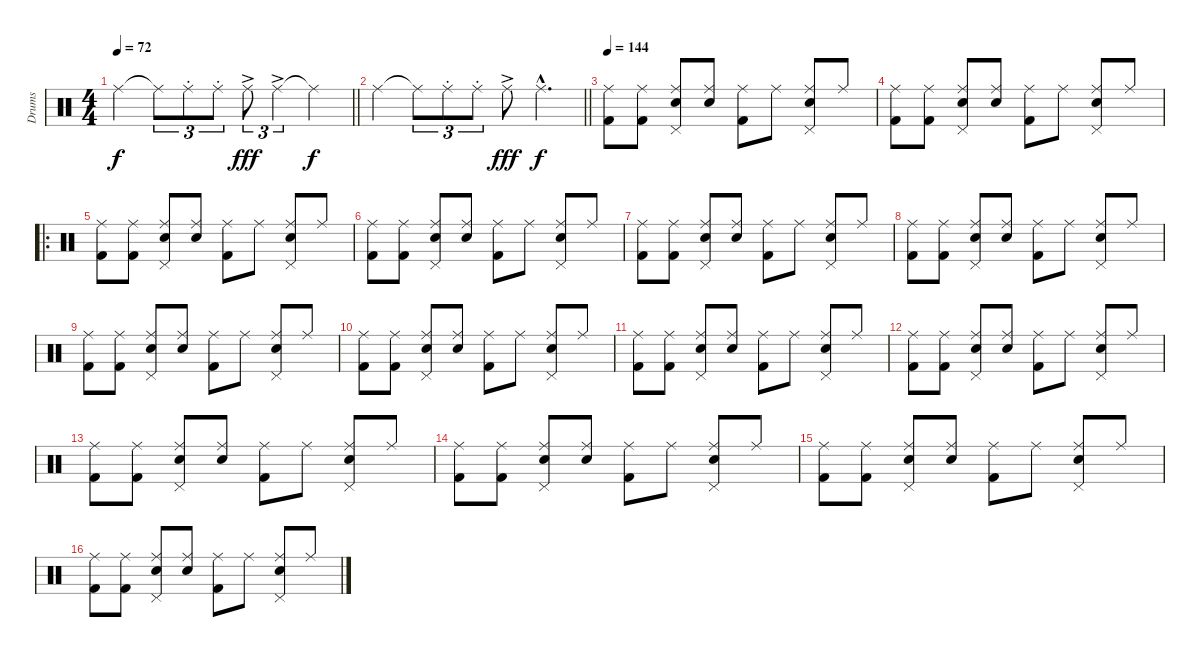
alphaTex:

\track ("Drums" "Drums") {instrument percussion}
\staff {score}
\articulation defaults
\ts (4 4)
\tempo 72
\clef neutral
\barLineRight lightlight
\ks c "Ride (middle)"{tr (51 64)}.4{dy f} "Ride (middle)"{t}.8{tu (3 2)} "Ride (middle)"{st}.8{tu (3 2)} "Ride (middle)"{st}.8{tu (3 2)} "Ride (middle)"{ac}.8{tu (3 2) dy fff} "Ride (middle)"{tr (51 64) ac}.4{tu (3 2)} "Ride (middle)"{t}.4{dy f}
|
\barLineRight lightlight "Ride (middle)"{tr (51 64)}.4 "Ride (middle)"{t}.8{tu (3 2)} "Ride (middle)"{st}.8{tu (3 2)} "Ride (middle)"{st}.8{tu (3 2)} "Ride (middle)"{ac}.8{dy fff} "Ride (middle)"{tr (51 64) hac}.4{d dy f}
|
\tempo 144
("Ride (middle)" "Kick (hit) 2").8 ("Ride (middle)" "Kick (hit) 2").8 ("Snare (hit) 2" "Pedal Hi-Hat (hit)" "Ride (middle)").8 ("Snare (hit) 2" "Ride (middle)").8 ("Ride (middle)" "Kick (hit) 2").8 "Ride (middle)".8 ("Snare (hit) 2" "Pedal Hi-Hat (hit)" "Ride (middle)").8 "Ride (middle)".8 |
("Ride (middle)" "Kick (hit) 2").8 ("Ride (middle)" "Kick (hit) 2").8 ("Snare (hit) 2" "Pedal Hi-Hat (hit)" "Ride (middle)").8 ("Snare (hit) 2" "Ride (middle)").8 ("Ride (middle)" "Kick (hit) 2").8 "Ride (middle)".8 ("Snare (hit) 2" "Pedal Hi-Hat (hit)" "Ride (middle)").8 "Ride (middle)".8 |
\ro
("Ride (middle)" "Kick (hit) 2").8 ("Ride (middle)" "Kick (hit) 2").8 ("Snare (hit) 2" "Pedal Hi-Hat (hit)" "Ride (middle)").8 ("Snare (hit) 2" "Ride (middle)").8 ("Ride (middle)" "Kick (hit) 2").8 "Ride (middle)".8 ("Snare (hit) 2" "Pedal Hi-Hat (hit)" "Ride (middle)").8 "Ride (middle)".8 |
("Ride (middle)" "Kick (hit) 2").8 ("Ride (middle)" "Kick (hit) 2").8 ("Snare (hit) 2" "Pedal Hi-Hat (hit)" "Ride (middle)").8 ("Snare (hit) 2" "Ride (middle)").8 ("Ride (middle)" "Kick (hit) 2").8 "Ride (middle)".8 ("Snare (hit) 2" "Pedal Hi-Hat (hit)" "Ride (middle)").8 "Ride (middle)".8 |
("Ride (middle)" "Kick (hit) 2").8 ("Ride (middle)" "Kick (hit) 2").8 ("Snare (hit) 2" "Pedal Hi-Hat (hit)" "Ride (middle)").8 ("Snare (hit) 2" "Ride (middle)").8 ("Ride (middle)" "Kick (hit) 2").8 "Ride (middle)".8 ("Snare (hit) 2" "Pedal Hi-Hat (hit)" "Ride (middle)").8 "Ride (middle)".8 |
("Ride (middle)" "Kick (hit) 2").8 ("Ride (middle)" "Kick (hit) 2").8 ("Snare (hit) 2" "Pedal Hi-Hat (hit)" "Ride (middle)").8 ("Snare (hit) 2" "Ride (middle)").8 ("Ride (middle)" "Kick (hit) 2").8 "Ride (middle)".8 ("Snare (hit) 2" "Pedal Hi-Hat (hit)" "Ride (middle)").8 "Ride (middle)".8 |
("Ride (middle)" "Kick (hit) 2").8 ("Ride (middle)" "Kick (hit) 2").8 ("Snare (hit) 2" "Pedal Hi-Hat (hit)" "Ride (middle)").8 ("Snare (hit) 2" "Ride (middle)").8 ("Ride (middle)" "Kick (hit) 2").8 "Ride (middle)".8 ("Snare (hit) 2" "Pedal Hi-Hat (hit)" "Ride (middle)").8 "Ride (middle)".8 |
("Ride (middle)" "Kick (hit) 2").8 ("Ride (middle)" "Kick (hit) 2").8 ("Snare (hit) 2" "Pedal Hi-Hat (hit)" "Ride (middle)").8 ("Snare (hit) 2" "Ride (middle)").8 ("Ride (middle)" "Kick (hit) 2").8 "Ride (middle)".8 ("Snare (hit) 2" "Pedal Hi-Hat (hit)" "Ride (middle)").8 "Ride (middle)".8 |
("Ride (middle)" "Kick (hit) 2").8 ("Ride (middle)" "Kick (hit) 2").8 ("Snare (hit) 2" "Pedal Hi-Hat (hit)" "Ride (middle)").8 ("Snare (hit) 2" "Ride (middle)").8 ("Ride (middle)" "Kick (hit) 2").8 "Ride (middle)".8 ("Snare (hit) 2" "Pedal Hi-Hat (hit)" "Ride (middle)").8 "Ride (middle)".8 |
("Ride (middle)" "Kick (hit) 2").8 ("Ride (middle)" "Kick (hit) 2").8 ("Snare (hit) 2" "Pedal Hi-Hat (hit)" "Ride (middle)").8 ("Snare (hit) 2" "Ride (middle)").8 ("Ride (middle)" "Kick (hit) 2").8 "Ride (middle)".8 ("Snare (hit) 2" "Pedal Hi-Hat (hit)" "Ride (middle)").8 "Ride (middle)".8 |
("Ride (middle)" "Kick (hit) 2").8 ("Ride (middle)" "Kick (hit) 2").8 ("Snare (hit) 2" "Pedal Hi-Hat (hit)" "Ride (middle)").8 ("Snare (hit) 2" "Ride (middle)").8 ("Ride (middle)" "Kick (hit) 2").8 "Ride (middle)".8 ("Snare (hit) 2" "Pedal Hi-Hat (hit)" "Ride (middle)").8 "Ride (middle)".8 |
("Ride (middle)" "Kick (hit) 2").8 ("Ride (middle)" "Kick (hit) 2").8 ("Snare (hit) 2" "Pedal Hi-Hat (hit)" "Ride (middle)").8 ("Snare (hit) 2" "Ride (middle)").8 ("Ride (middle)" "Kick (hit) 2").8 "Ride (middle)".8 ("Snare (hit) 2" "Pedal Hi-Hat (hit)" "Ride (middle)").8 "Ride (middle)".8 |
("Ride (middle)" "Kick (hit) 2").8 ("Ride (middle)" "Kick (hit) 2").8 ("Snare (hit) 2" "Pedal Hi-Hat (hit)" "Ride (middle)").8 ("Snare (hit) 2" "Ride (middle)").8 ("Ride (middle)" "Kick (hit) 2").8 "Ride (middle)".8 ("Snare (hit) 2" "Pedal Hi-Hat (hit)" "Ride (middle)").8 "Ride (middle)".8 |
("Ride (middle)" "Kick (hit) 2").8 ("Ride (middle)" "Kick (hit) 2").8 ("Snare (hit) 2" "Pedal Hi-Hat (hit)" "Ride (middle)").8 ("Snare (hit) 2" "Ride (middle)").8 ("Ride (middle)" "Kick (hit) 2").8 "Ride (middle)".8 ("Snare (hit) 2" "Pedal Hi-Hat (hit)" "Ride (middle)").8 "Ride (middle)".8
